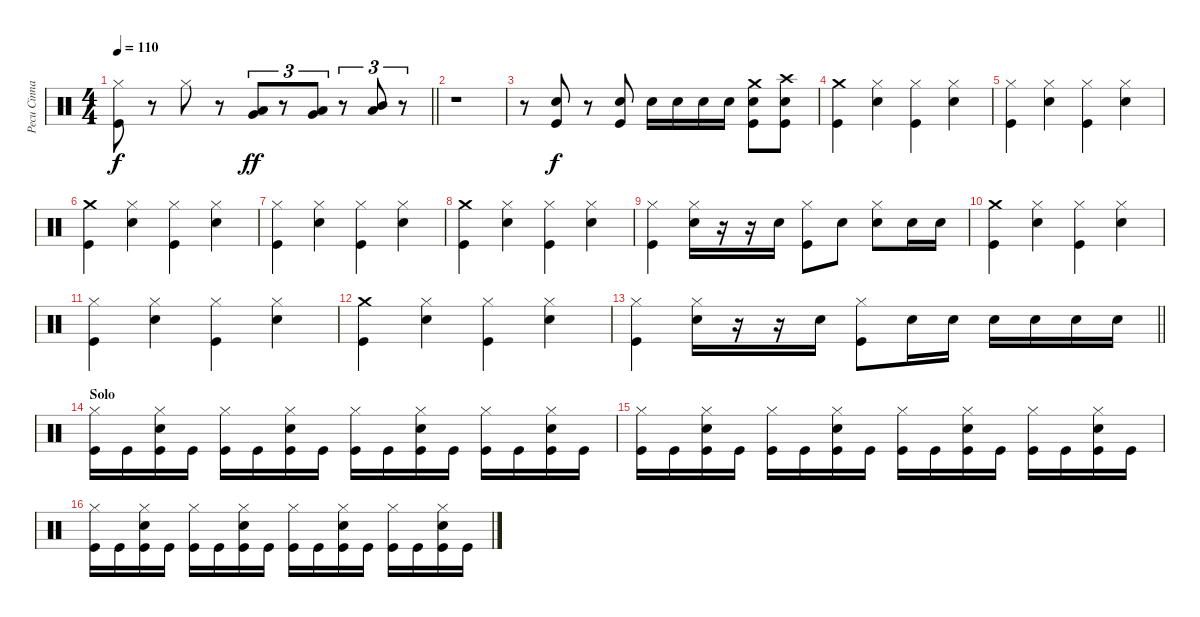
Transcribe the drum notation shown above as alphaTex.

\track ("Pecu Cinnari" "Pecu Cinna") {instrument percussion}
\staff {score}
\articulation defaults
\ts (4 4)
\tempo 110
\clef neutral
\barLineRight lightlight
\ks c
("Hi-Hat (closed)" "Kick (hit)").8{dy f} r.8 "Hi-Hat (closed)".8 r.8 ("Very Low Tom (hit)" "Low Tom (hit)").8{tu (3 2) dy ff} r.8{tu (3 2)} ("Low Floor Tom (hit)" "Very Low Tom (hit)").8{tu (3 2)} r.8{tu (3 2)} ("Mid Tom (hit)" "Low Tom (hit)").8{tu (3 2)} r.8{tu (3 2)} |
\section ("" "")
r.1 |
r.8 ("Snare (hit) 2" "Kick (hit)").8{dy f} r.8 ("Snare (hit) 2" "Kick (hit)").8 "Snare (hit) 2".16 "Snare (hit) 2".16 "Snare (hit) 2".16 "Snare (hit) 2".16 ("Crash medium (hit)" "Snare (hit) 2" "Kick (hit)").8 ("Crash high (hit)" "Snare (hit) 2" "Kick (hit)").8 |
("Crash medium (hit)" "Kick (hit)").4 ("Hi-Hat (closed)" "Snare (hit) 2").4 ("Hi-Hat (closed)" "Kick (hit)").4 ("Hi-Hat (closed)" "Snare (hit) 2").4 |
("Hi-Hat (closed)" "Kick (hit)").4 ("Hi-Hat (closed)" "Snare (hit) 2").4 ("Hi-Hat (closed)" "Kick (hit)").4 ("Hi-Hat (closed)" "Snare (hit) 2").4 |
("Crash medium (hit)" "Kick (hit)").4 ("Hi-Hat (closed)" "Snare (hit) 2").4 ("Hi-Hat (closed)" "Kick (hit)").4 ("Hi-Hat (closed)" "Snare (hit) 2").4 |
("Hi-Hat (closed)" "Kick (hit)").4 ("Hi-Hat (closed)" "Snare (hit) 2").4 ("Hi-Hat (closed)" "Kick (hit)").4 ("Hi-Hat (closed)" "Snare (hit) 2").4 |
("Crash medium (hit)" "Kick (hit)").4 ("Hi-Hat (closed)" "Snare (hit) 2").4 ("Hi-Hat (closed)" "Kick (hit)").4 ("Hi-Hat (closed)" "Snare (hit) 2").4 |
("Hi-Hat (closed)" "Kick (hit)").4 ("Hi-Hat (closed)" "Snare (hit) 2").16 r.16 r.16 "Snare (hit) 2".16 ("Hi-Hat (closed)" "Kick (hit)").8 "Snare (hit) 2".8 ("Hi-Hat (closed)" "Snare (hit) 2").8 "Snare (hit) 2".16 "Snare (hit) 2".16 |
("Crash medium (hit)" "Kick (hit)").4 ("Hi-Hat (closed)" "Snare (hit) 2").4 ("Hi-Hat (closed)" "Kick (hit)").4 ("Hi-Hat (closed)" "Snare (hit) 2").4 |
("Hi-Hat (closed)" "Kick (hit)").4 ("Hi-Hat (closed)" "Snare (hit) 2").4 ("Hi-Hat (closed)" "Kick (hit)").4 ("Hi-Hat (closed)" "Snare (hit) 2").4 |
("Crash medium (hit)" "Kick (hit)").4 ("Hi-Hat (closed)" "Snare (hit) 2").4 ("Hi-Hat (closed)" "Kick (hit)").4 ("Hi-Hat (closed)" "Snare (hit) 2").4 |
\barLineRight lightlight
("Hi-Hat (closed)" "Kick (hit)").4 ("Hi-Hat (closed)" "Snare (hit) 2").16 r.16 r.16 "Snare (hit) 2".16 ("Hi-Hat (closed)" "Kick (hit)").8 "Snare (hit) 2".16 "Snare (hit) 2".16 "Snare (hit) 2".16 "Snare (hit) 2".16 "Snare (hit) 2".16 "Snare (hit) 2".16 |
\section ("" "Solo")
("Hi-Hat (closed)" "Kick (hit)").16 "Kick (hit)".16 ("Hi-Hat (closed)" "Snare (hit) 2" "Kick (hit)").16 "Kick (hit)".16 ("Hi-Hat (closed)" "Kick (hit)").16 "Kick (hit)".16 ("Hi-Hat (closed)" "Snare (hit) 2" "Kick (hit)").16 "Kick (hit)".16 ("Hi-Hat (closed)" "Kick (hit)").16 "Kick (hit)".16 ("Hi-Hat (closed)" "Snare (hit) 2" "Kick (hit)").16 "Kick (hit)".16 ("Hi-Hat (closed)" "Kick (hit)").16 "Kick (hit)".16 ("Hi-Hat (closed)" "Snare (hit) 2" "Kick (hit)").16 "Kick (hit)".16 |
("Hi-Hat (closed)" "Kick (hit)").16 "Kick (hit)".16 ("Hi-Hat (closed)" "Snare (hit) 2" "Kick (hit)").16 "Kick (hit)".16 ("Hi-Hat (closed)" "Kick (hit)").16 "Kick (hit)".16 ("Hi-Hat (closed)" "Snare (hit) 2" "Kick (hit)").16 "Kick (hit)".16 ("Hi-Hat (closed)" "Kick (hit)").16 "Kick (hit)".16 ("Hi-Hat (closed)" "Snare (hit) 2" "Kick (hit)").16 "Kick (hit)".16 ("Hi-Hat (closed)" "Kick (hit)").16 "Kick (hit)".16 ("Hi-Hat (closed)" "Snare (hit) 2" "Kick (hit)").16 "Kick (hit)".16 |
("Hi-Hat (closed)" "Kick (hit)").16 "Kick (hit)".16 ("Hi-Hat (closed)" "Snare (hit) 2" "Kick (hit)").16 "Kick (hit)".16 ("Hi-Hat (closed)" "Kick (hit)").16 "Kick (hit)".16 ("Hi-Hat (closed)" "Snare (hit) 2" "Kick (hit)").16 "Kick (hit)".16 ("Hi-Hat (closed)" "Kick (hit)").16 "Kick (hit)".16 ("Hi-Hat (closed)" "Snare (hit) 2" "Kick (hit)").16 "Kick (hit)".16 ("Hi-Hat (closed)" "Kick (hit)").16 "Kick (hit)".16 ("Hi-Hat (closed)" "Snare (hit) 2" "Kick (hit)").16 "Kick (hit)".16
